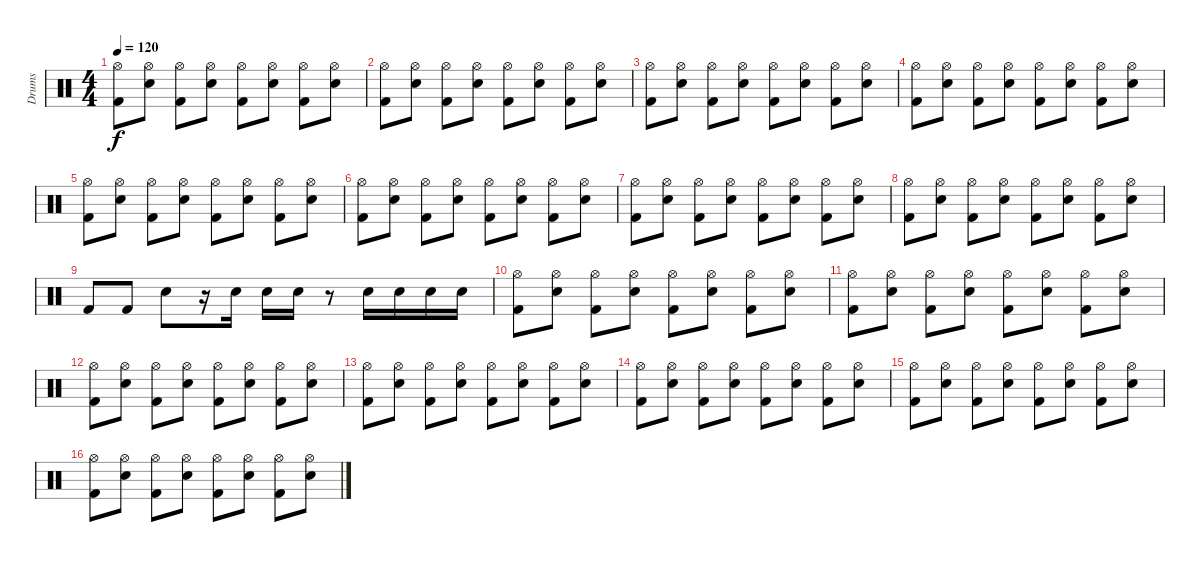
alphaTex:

\track ("Drums" "Drums") {instrument percussion}
\staff {score}
\articulation defaults
\ts (4 4)
\tempo 120
\clef neutral
\ks c
("Hi-Hat (open)" "Kick (hit) 2").8{dy f} ("Hi-Hat (open)" "Snare (hit) 2").8 ("Hi-Hat (open)" "Kick (hit) 2").8 ("Hi-Hat (open)" "Snare (hit) 2").8 ("Hi-Hat (open)" "Kick (hit) 2").8 ("Hi-Hat (open)" "Snare (hit) 2").8 ("Hi-Hat (open)" "Kick (hit) 2").8 ("Hi-Hat (open)" "Snare (hit) 2").8 |
("Hi-Hat (open)" "Kick (hit) 2").8 ("Hi-Hat (open)" "Snare (hit) 2").8 ("Hi-Hat (open)" "Kick (hit) 2").8 ("Hi-Hat (open)" "Snare (hit) 2").8 ("Hi-Hat (open)" "Kick (hit) 2").8 ("Hi-Hat (open)" "Snare (hit) 2").8 ("Hi-Hat (open)" "Kick (hit) 2").8 ("Hi-Hat (open)" "Snare (hit) 2").8 |
("Hi-Hat (open)" "Kick (hit) 2").8 ("Hi-Hat (open)" "Snare (hit) 2").8 ("Hi-Hat (open)" "Kick (hit) 2").8 ("Hi-Hat (open)" "Snare (hit) 2").8 ("Hi-Hat (open)" "Kick (hit) 2").8 ("Hi-Hat (open)" "Snare (hit) 2").8 ("Hi-Hat (open)" "Kick (hit) 2").8 ("Hi-Hat (open)" "Snare (hit) 2").8 |
("Hi-Hat (open)" "Kick (hit) 2").8 ("Hi-Hat (open)" "Snare (hit) 2").8 ("Hi-Hat (open)" "Kick (hit) 2").8 ("Hi-Hat (open)" "Snare (hit) 2").8 ("Hi-Hat (open)" "Kick (hit) 2").8 ("Hi-Hat (open)" "Snare (hit) 2").8 ("Hi-Hat (open)" "Kick (hit) 2").8 ("Hi-Hat (open)" "Snare (hit) 2").8 |
("Hi-Hat (open)" "Kick (hit) 2").8 ("Hi-Hat (open)" "Snare (hit) 2").8 ("Hi-Hat (open)" "Kick (hit) 2").8 ("Hi-Hat (open)" "Snare (hit) 2").8 ("Hi-Hat (open)" "Kick (hit) 2").8 ("Hi-Hat (open)" "Snare (hit) 2").8 ("Hi-Hat (open)" "Kick (hit) 2").8 ("Hi-Hat (open)" "Snare (hit) 2").8 |
("Hi-Hat (open)" "Kick (hit) 2").8 ("Hi-Hat (open)" "Snare (hit) 2").8 ("Hi-Hat (open)" "Kick (hit) 2").8 ("Hi-Hat (open)" "Snare (hit) 2").8 ("Hi-Hat (open)" "Kick (hit) 2").8 ("Hi-Hat (open)" "Snare (hit) 2").8 ("Hi-Hat (open)" "Kick (hit) 2").8 ("Hi-Hat (open)" "Snare (hit) 2").8 |
("Hi-Hat (open)" "Kick (hit) 2").8 ("Hi-Hat (open)" "Snare (hit) 2").8 ("Hi-Hat (open)" "Kick (hit) 2").8 ("Hi-Hat (open)" "Snare (hit) 2").8 ("Hi-Hat (open)" "Kick (hit) 2").8 ("Hi-Hat (open)" "Snare (hit) 2").8 ("Hi-Hat (open)" "Kick (hit) 2").8 ("Hi-Hat (open)" "Snare (hit) 2").8 |
("Hi-Hat (open)" "Kick (hit) 2").8 ("Hi-Hat (open)" "Snare (hit) 2").8 ("Hi-Hat (open)" "Kick (hit) 2").8 ("Hi-Hat (open)" "Snare (hit) 2").8 ("Hi-Hat (open)" "Kick (hit) 2").8 ("Hi-Hat (open)" "Snare (hit) 2").8 ("Hi-Hat (open)" "Kick (hit) 2").8 ("Hi-Hat (open)" "Snare (hit) 2").8 |
"Kick (hit) 2".8 "Kick (hit) 2".8 "Snare (hit) 2".8 r.16 "Snare (hit) 2".16 "Snare (hit) 2".16 "Snare (hit) 2".16 r.8 "Snare (hit) 2".16 "Snare (hit) 2".16 "Snare (hit) 2".16 "Snare (hit) 2".16 |
("Hi-Hat (open)" "Kick (hit) 2").8 ("Hi-Hat (open)" "Snare (hit) 2").8 ("Hi-Hat (open)" "Kick (hit) 2").8 ("Hi-Hat (open)" "Snare (hit) 2").8 ("Hi-Hat (open)" "Kick (hit) 2").8 ("Hi-Hat (open)" "Snare (hit) 2").8 ("Hi-Hat (open)" "Kick (hit) 2").8 ("Hi-Hat (open)" "Snare (hit) 2").8 |
("Hi-Hat (open)" "Kick (hit) 2").8 ("Hi-Hat (open)" "Snare (hit) 2").8 ("Hi-Hat (open)" "Kick (hit) 2").8 ("Hi-Hat (open)" "Snare (hit) 2").8 ("Hi-Hat (open)" "Kick (hit) 2").8 ("Hi-Hat (open)" "Snare (hit) 2").8 ("Hi-Hat (open)" "Kick (hit) 2").8 ("Hi-Hat (open)" "Snare (hit) 2").8 |
("Hi-Hat (open)" "Kick (hit) 2").8 ("Hi-Hat (open)" "Snare (hit) 2").8 ("Hi-Hat (open)" "Kick (hit) 2").8 ("Hi-Hat (open)" "Snare (hit) 2").8 ("Hi-Hat (open)" "Kick (hit) 2").8 ("Hi-Hat (open)" "Snare (hit) 2").8 ("Hi-Hat (open)" "Kick (hit) 2").8 ("Hi-Hat (open)" "Snare (hit) 2").8 |
("Hi-Hat (open)" "Kick (hit) 2").8 ("Hi-Hat (open)" "Snare (hit) 2").8 ("Hi-Hat (open)" "Kick (hit) 2").8 ("Hi-Hat (open)" "Snare (hit) 2").8 ("Hi-Hat (open)" "Kick (hit) 2").8 ("Hi-Hat (open)" "Snare (hit) 2").8 ("Hi-Hat (open)" "Kick (hit) 2").8 ("Hi-Hat (open)" "Snare (hit) 2").8 |
("Hi-Hat (open)" "Kick (hit) 2").8 ("Hi-Hat (open)" "Snare (hit) 2").8 ("Hi-Hat (open)" "Kick (hit) 2").8 ("Hi-Hat (open)" "Snare (hit) 2").8 ("Hi-Hat (open)" "Kick (hit) 2").8 ("Hi-Hat (open)" "Snare (hit) 2").8 ("Hi-Hat (open)" "Kick (hit) 2").8 ("Hi-Hat (open)" "Snare (hit) 2").8 |
("Hi-Hat (open)" "Kick (hit) 2").8 ("Hi-Hat (open)" "Snare (hit) 2").8 ("Hi-Hat (open)" "Kick (hit) 2").8 ("Hi-Hat (open)" "Snare (hit) 2").8 ("Hi-Hat (open)" "Kick (hit) 2").8 ("Hi-Hat (open)" "Snare (hit) 2").8 ("Hi-Hat (open)" "Kick (hit) 2").8 ("Hi-Hat (open)" "Snare (hit) 2").8 |
("Hi-Hat (open)" "Kick (hit) 2").8 ("Hi-Hat (open)" "Snare (hit) 2").8 ("Hi-Hat (open)" "Kick (hit) 2").8 ("Hi-Hat (open)" "Snare (hit) 2").8 ("Hi-Hat (open)" "Kick (hit) 2").8 ("Hi-Hat (open)" "Snare (hit) 2").8 ("Hi-Hat (open)" "Kick (hit) 2").8 ("Hi-Hat (open)" "Snare (hit) 2").8
